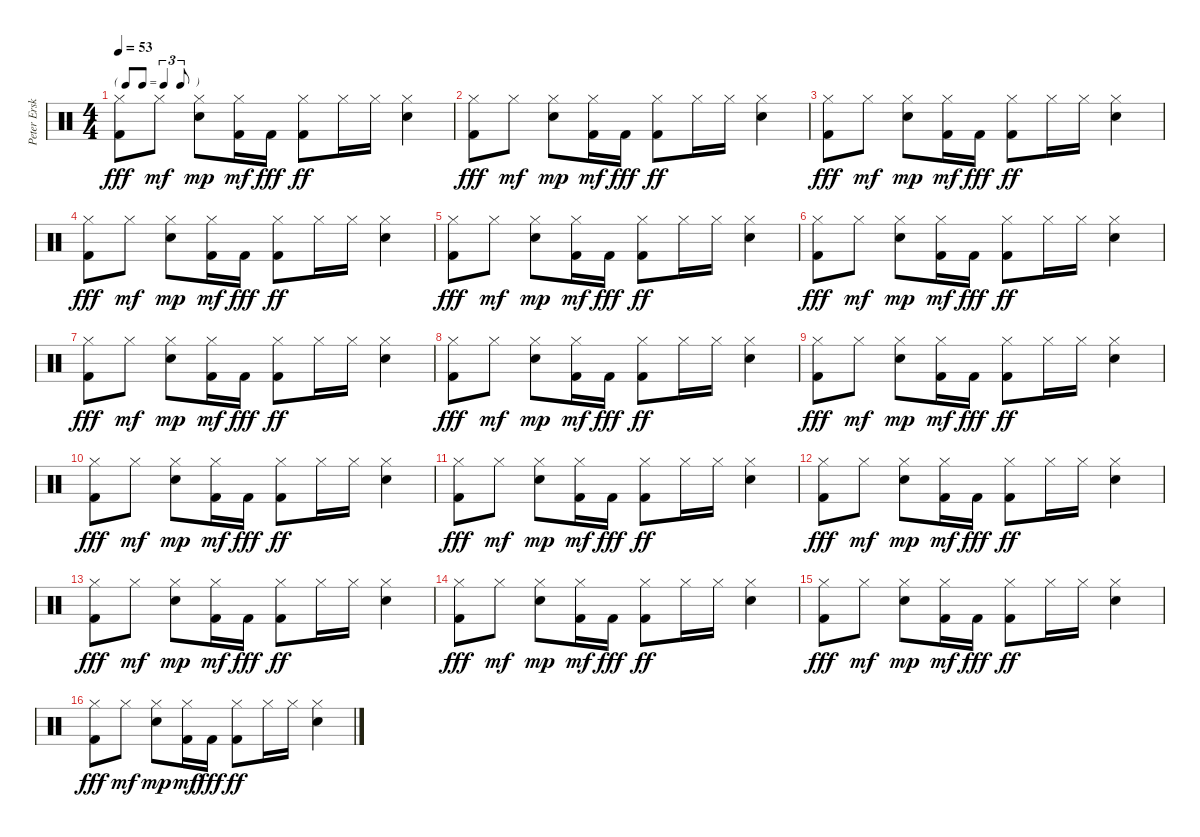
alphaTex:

\track ("Peter Erskine" "Peter Ersk") {instrument percussion}
\staff {score}
\articulation defaults
\ts (4 4)
\tf triplet8th
\tempo 53
\clef neutral
\ks c
("Kick (hit) 2" "Hi-Hat (closed)").8{dy fff} "Hi-Hat (closed)".8{dy mf} ("Snare (hit) 2" "Hi-Hat (closed)").8{dy mp} ("Kick (hit) 2" "Hi-Hat (closed)").16{dy mf} "Kick (hit) 2".16{dy fff} ("Kick (hit) 2" "Hi-Hat (closed)").8{dy ff} "Hi-Hat (closed)".16 "Hi-Hat (closed)".16 ("Snare (hit) 2" "Hi-Hat (closed)").4 |
("Kick (hit) 2" "Hi-Hat (closed)").8{dy fff} "Hi-Hat (closed)".8{dy mf} ("Snare (hit) 2" "Hi-Hat (closed)").8{dy mp} ("Kick (hit) 2" "Hi-Hat (closed)").16{dy mf} "Kick (hit) 2".16{dy fff} ("Kick (hit) 2" "Hi-Hat (closed)").8{dy ff} "Hi-Hat (closed)".16 "Hi-Hat (closed)".16 ("Snare (hit) 2" "Hi-Hat (closed)").4 |
("Kick (hit) 2" "Hi-Hat (closed)").8{dy fff} "Hi-Hat (closed)".8{dy mf} ("Snare (hit) 2" "Hi-Hat (closed)").8{dy mp} ("Kick (hit) 2" "Hi-Hat (closed)").16{dy mf} "Kick (hit) 2".16{dy fff} ("Kick (hit) 2" "Hi-Hat (closed)").8{dy ff} "Hi-Hat (closed)".16 "Hi-Hat (closed)".16 ("Snare (hit) 2" "Hi-Hat (closed)").4 |
("Kick (hit) 2" "Hi-Hat (closed)").8{dy fff} "Hi-Hat (closed)".8{dy mf} ("Snare (hit) 2" "Hi-Hat (closed)").8{dy mp} ("Kick (hit) 2" "Hi-Hat (closed)").16{dy mf} "Kick (hit) 2".16{dy fff} ("Kick (hit) 2" "Hi-Hat (closed)").8{dy ff} "Hi-Hat (closed)".16 "Hi-Hat (closed)".16 ("Snare (hit) 2" "Hi-Hat (closed)").4 |
("Kick (hit) 2" "Hi-Hat (closed)").8{dy fff} "Hi-Hat (closed)".8{dy mf} ("Snare (hit) 2" "Hi-Hat (closed)").8{dy mp} ("Kick (hit) 2" "Hi-Hat (closed)").16{dy mf} "Kick (hit) 2".16{dy fff} ("Kick (hit) 2" "Hi-Hat (closed)").8{dy ff} "Hi-Hat (closed)".16 "Hi-Hat (closed)".16 ("Snare (hit) 2" "Hi-Hat (closed)").4 |
("Kick (hit) 2" "Hi-Hat (closed)").8{dy fff} "Hi-Hat (closed)".8{dy mf} ("Snare (hit) 2" "Hi-Hat (closed)").8{dy mp} ("Kick (hit) 2" "Hi-Hat (closed)").16{dy mf} "Kick (hit) 2".16{dy fff} ("Kick (hit) 2" "Hi-Hat (closed)").8{dy ff} "Hi-Hat (closed)".16 "Hi-Hat (closed)".16 ("Snare (hit) 2" "Hi-Hat (closed)").4 |
("Kick (hit) 2" "Hi-Hat (closed)").8{dy fff} "Hi-Hat (closed)".8{dy mf} ("Snare (hit) 2" "Hi-Hat (closed)").8{dy mp} ("Kick (hit) 2" "Hi-Hat (closed)").16{dy mf} "Kick (hit) 2".16{dy fff} ("Kick (hit) 2" "Hi-Hat (closed)").8{dy ff} "Hi-Hat (closed)".16 "Hi-Hat (closed)".16 ("Snare (hit) 2" "Hi-Hat (closed)").4 |
("Kick (hit) 2" "Hi-Hat (closed)").8{dy fff} "Hi-Hat (closed)".8{dy mf} ("Snare (hit) 2" "Hi-Hat (closed)").8{dy mp} ("Kick (hit) 2" "Hi-Hat (closed)").16{dy mf} "Kick (hit) 2".16{dy fff} ("Kick (hit) 2" "Hi-Hat (closed)").8{dy ff} "Hi-Hat (closed)".16 "Hi-Hat (closed)".16 ("Snare (hit) 2" "Hi-Hat (closed)").4 |
("Kick (hit) 2" "Hi-Hat (closed)").8{dy fff} "Hi-Hat (closed)".8{dy mf} ("Snare (hit) 2" "Hi-Hat (closed)").8{dy mp} ("Kick (hit) 2" "Hi-Hat (closed)").16{dy mf} "Kick (hit) 2".16{dy fff} ("Kick (hit) 2" "Hi-Hat (closed)").8{dy ff} "Hi-Hat (closed)".16 "Hi-Hat (closed)".16 ("Snare (hit) 2" "Hi-Hat (closed)").4 |
("Kick (hit) 2" "Hi-Hat (closed)").8{dy fff} "Hi-Hat (closed)".8{dy mf} ("Snare (hit) 2" "Hi-Hat (closed)").8{dy mp} ("Kick (hit) 2" "Hi-Hat (closed)").16{dy mf} "Kick (hit) 2".16{dy fff} ("Kick (hit) 2" "Hi-Hat (closed)").8{dy ff} "Hi-Hat (closed)".16 "Hi-Hat (closed)".16 ("Snare (hit) 2" "Hi-Hat (closed)").4 |
("Kick (hit) 2" "Hi-Hat (closed)").8{dy fff} "Hi-Hat (closed)".8{dy mf} ("Snare (hit) 2" "Hi-Hat (closed)").8{dy mp} ("Kick (hit) 2" "Hi-Hat (closed)").16{dy mf} "Kick (hit) 2".16{dy fff} ("Kick (hit) 2" "Hi-Hat (closed)").8{dy ff} "Hi-Hat (closed)".16 "Hi-Hat (closed)".16 ("Snare (hit) 2" "Hi-Hat (closed)").4 |
("Kick (hit) 2" "Hi-Hat (closed)").8{dy fff} "Hi-Hat (closed)".8{dy mf} ("Snare (hit) 2" "Hi-Hat (closed)").8{dy mp} ("Kick (hit) 2" "Hi-Hat (closed)").16{dy mf} "Kick (hit) 2".16{dy fff} ("Kick (hit) 2" "Hi-Hat (closed)").8{dy ff} "Hi-Hat (closed)".16 "Hi-Hat (closed)".16 ("Snare (hit) 2" "Hi-Hat (closed)").4 |
("Kick (hit) 2" "Hi-Hat (closed)").8{dy fff} "Hi-Hat (closed)".8{dy mf} ("Snare (hit) 2" "Hi-Hat (closed)").8{dy mp} ("Kick (hit) 2" "Hi-Hat (closed)").16{dy mf} "Kick (hit) 2".16{dy fff} ("Kick (hit) 2" "Hi-Hat (closed)").8{dy ff} "Hi-Hat (closed)".16 "Hi-Hat (closed)".16 ("Snare (hit) 2" "Hi-Hat (closed)").4 |
("Kick (hit) 2" "Hi-Hat (closed)").8{dy fff} "Hi-Hat (closed)".8{dy mf} ("Snare (hit) 2" "Hi-Hat (closed)").8{dy mp} ("Kick (hit) 2" "Hi-Hat (closed)").16{dy mf} "Kick (hit) 2".16{dy fff} ("Kick (hit) 2" "Hi-Hat (closed)").8{dy ff} "Hi-Hat (closed)".16 "Hi-Hat (closed)".16 ("Snare (hit) 2" "Hi-Hat (closed)").4 |
("Kick (hit) 2" "Hi-Hat (closed)").8{dy fff} "Hi-Hat (closed)".8{dy mf} ("Snare (hit) 2" "Hi-Hat (closed)").8{dy mp} ("Kick (hit) 2" "Hi-Hat (closed)").16{dy mf} "Kick (hit) 2".16{dy fff} ("Kick (hit) 2" "Hi-Hat (closed)").8{dy ff} "Hi-Hat (closed)".16 "Hi-Hat (closed)".16 ("Snare (hit) 2" "Hi-Hat (closed)").4 |
("Kick (hit) 2" "Hi-Hat (closed)").8{dy fff} "Hi-Hat (closed)".8{dy mf} ("Snare (hit) 2" "Hi-Hat (closed)").8{dy mp} ("Kick (hit) 2" "Hi-Hat (closed)").16{dy mf} "Kick (hit) 2".16{dy fff} ("Kick (hit) 2" "Hi-Hat (closed)").8{dy ff} "Hi-Hat (closed)".16 "Hi-Hat (closed)".16 ("Snare (hit) 2" "Hi-Hat (closed)").4
